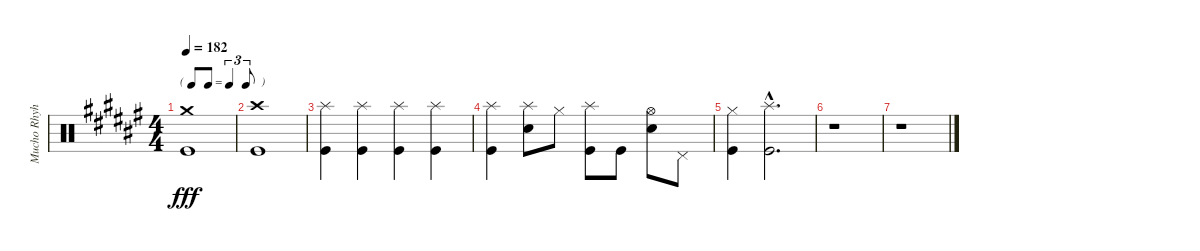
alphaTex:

\track ("Mucho Rhyhtm" "Mucho Rhyh") {instrument percussion}
\staff {score}
\articulation defaults
\ts (4 4)
\tf triplet8th
\tempo 182
\clef neutral
\ks f#
("Crash medium (hit)" "Kick (hit)").1{dy fff} |
("Crash high (hit)" "Kick (hit)").1 |
("Splash (hit)" "Kick (hit)").4 ("Splash (hit)" "Kick (hit)").4 ("Splash (hit)" "Kick (hit)").4 ("Splash (hit)" "Kick (hit)").4 |
("Splash (hit)" "Kick (hit)").4 ("Splash (hit)" "Snare (hit) 2").8 "Hi-Hat (closed)".8 ("Splash (hit)" "Kick (hit)").8 "Kick (hit)".8 ("Hi-Hat (open)" "Snare (hit) 2").8 "Pedal Hi-Hat (hit)".8 |
("Hi-Hat (closed)" "Kick (hit)").4 ("Splash (hit)"{hac} "Kick (hit)"{hac}).2{d} |
r.1 |
r.1
